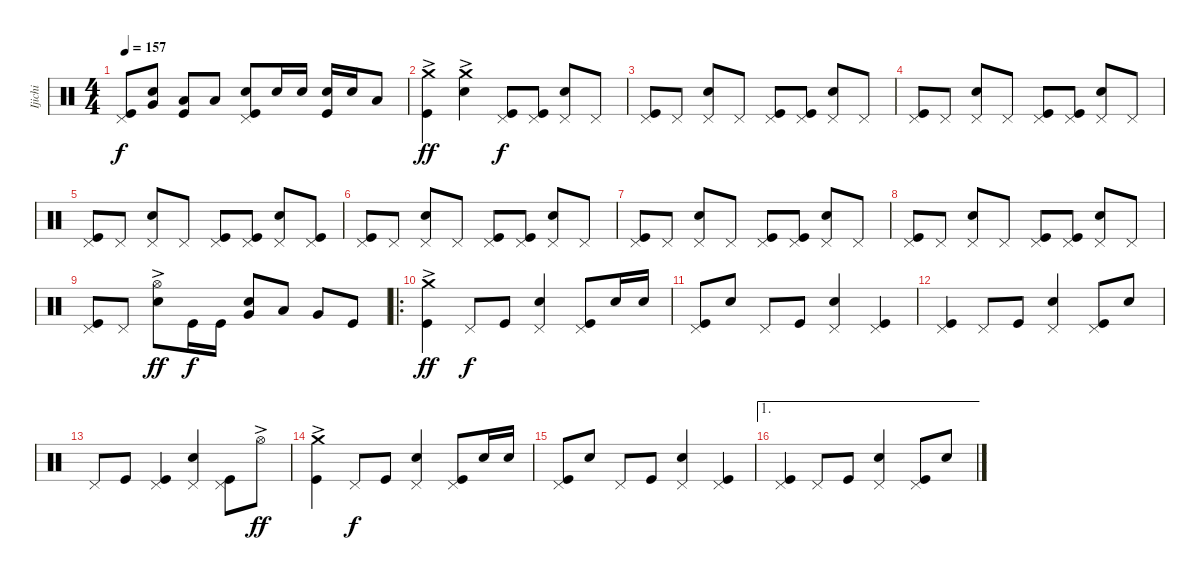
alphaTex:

\track ("Ijichi" "Ijichi") {instrument percussion}
\staff {score}
\articulation defaults
\ts (4 4)
\tempo 157
\clef neutral
\ks c
("Pedal Hi-Hat (hit)" "Kick (hit)").8{dy f} ("Snare (hit) 2" "Very Low Tom (hit)").8 ("Low Tom (hit)" "Kick (hit)").8 "Low Tom (hit)".8 ("Pedal Hi-Hat (hit)" "Snare (hit) 2" "Kick (hit)").8 "Snare (hit) 2".16 "Snare (hit) 2".16 ("Snare (hit) 2" "Kick (hit)").16 "Snare (hit) 2".16 "Low Tom (hit)".8 |
("Crash medium (hit)"{ac} "Kick (hit)").4{dy ff} ("Crash medium (hit)"{ac} "Snare (hit) 2").4 ("Pedal Hi-Hat (hit)" "Kick (hit)").8{dy f} ("Pedal Hi-Hat (hit)" "Kick (hit)").8 ("Pedal Hi-Hat (hit)" "Snare (hit) 2").8 "Pedal Hi-Hat (hit)".8 |
("Pedal Hi-Hat (hit)" "Kick (hit)").8 "Pedal Hi-Hat (hit)".8 ("Pedal Hi-Hat (hit)" "Snare (hit) 2").8 "Pedal Hi-Hat (hit)".8 ("Pedal Hi-Hat (hit)" "Kick (hit)").8 ("Pedal Hi-Hat (hit)" "Kick (hit)").8 ("Pedal Hi-Hat (hit)" "Snare (hit) 2").8 "Pedal Hi-Hat (hit)".8 |
("Pedal Hi-Hat (hit)" "Kick (hit)").8 "Pedal Hi-Hat (hit)".8 ("Pedal Hi-Hat (hit)" "Snare (hit) 2").8 "Pedal Hi-Hat (hit)".8 ("Pedal Hi-Hat (hit)" "Kick (hit)").8 ("Pedal Hi-Hat (hit)" "Kick (hit)").8 ("Pedal Hi-Hat (hit)" "Snare (hit) 2").8 "Pedal Hi-Hat (hit)".8 |
("Pedal Hi-Hat (hit)" "Kick (hit)").8 "Pedal Hi-Hat (hit)".8 ("Pedal Hi-Hat (hit)" "Snare (hit) 2").8 "Pedal Hi-Hat (hit)".8 ("Pedal Hi-Hat (hit)" "Kick (hit)").8 ("Pedal Hi-Hat (hit)" "Kick (hit)").8 ("Pedal Hi-Hat (hit)" "Snare (hit) 2").8 ("Pedal Hi-Hat (hit)" "Kick (hit)").8 |
("Pedal Hi-Hat (hit)" "Kick (hit)").8 "Pedal Hi-Hat (hit)".8 ("Pedal Hi-Hat (hit)" "Snare (hit) 2").8 "Pedal Hi-Hat (hit)".8 ("Pedal Hi-Hat (hit)" "Kick (hit)").8 ("Pedal Hi-Hat (hit)" "Kick (hit)").8 ("Pedal Hi-Hat (hit)" "Snare (hit) 2").8 "Pedal Hi-Hat (hit)".8 |
("Pedal Hi-Hat (hit)" "Kick (hit)").8 "Pedal Hi-Hat (hit)".8 ("Pedal Hi-Hat (hit)" "Snare (hit) 2").8 "Pedal Hi-Hat (hit)".8 ("Pedal Hi-Hat (hit)" "Kick (hit)").8 ("Pedal Hi-Hat (hit)" "Kick (hit)").8 ("Pedal Hi-Hat (hit)" "Snare (hit) 2").8 "Pedal Hi-Hat (hit)".8 |
("Pedal Hi-Hat (hit)" "Kick (hit)").8 "Pedal Hi-Hat (hit)".8 ("Pedal Hi-Hat (hit)" "Snare (hit) 2").8 "Pedal Hi-Hat (hit)".8 ("Pedal Hi-Hat (hit)" "Kick (hit)").8 ("Pedal Hi-Hat (hit)" "Kick (hit)").8 ("Pedal Hi-Hat (hit)" "Snare (hit) 2").8 "Pedal Hi-Hat (hit)".8 |
("Pedal Hi-Hat (hit)" "Kick (hit)").8 "Pedal Hi-Hat (hit)".8 ("Hi-Hat (open)"{ac} "Snare (hit) 2").8{dy ff} "Kick (hit)".16{dy f} "Kick (hit)".16 ("Snare (hit) 2" "Very Low Tom (hit)").8 "Low Tom (hit)".8 "Very Low Tom (hit)".8 "Kick (hit)".8 |
\ro
("Crash medium (hit)"{ac} "Kick (hit)").4{dy ff} "Pedal Hi-Hat (hit)".8{dy f} "Kick (hit)".8 ("Pedal Hi-Hat (hit)" "Snare (hit) 2").4 ("Pedal Hi-Hat (hit)" "Kick (hit)").8 "Snare (hit) 2".16 "Snare (hit) 2".16 |
("Pedal Hi-Hat (hit)" "Kick (hit)").8 "Snare (hit) 2".8 "Pedal Hi-Hat (hit)".8 "Kick (hit)".8 ("Pedal Hi-Hat (hit)" "Snare (hit) 2").4 ("Pedal Hi-Hat (hit)" "Kick (hit)").4 |
("Pedal Hi-Hat (hit)" "Kick (hit)").4 "Pedal Hi-Hat (hit)".8 "Kick (hit)".8 ("Pedal Hi-Hat (hit)" "Snare (hit) 2").4 ("Pedal Hi-Hat (hit)" "Kick (hit)").8 "Snare (hit) 2".8 |
"Pedal Hi-Hat (hit)".8 "Kick (hit)".8 ("Pedal Hi-Hat (hit)" "Kick (hit)").4 ("Pedal Hi-Hat (hit)" "Snare (hit) 2").4 ("Pedal Hi-Hat (hit)" "Kick (hit)").8 "Hi-Hat (open)"{ac}.8{dy ff} |
("Crash medium (hit)"{ac} "Kick (hit)").4 "Pedal Hi-Hat (hit)".8{dy f} "Kick (hit)".8 ("Pedal Hi-Hat (hit)" "Snare (hit) 2").4 ("Pedal Hi-Hat (hit)" "Kick (hit)").8 "Snare (hit) 2".16 "Snare (hit) 2".16 |
("Pedal Hi-Hat (hit)" "Kick (hit)").8 "Snare (hit) 2".8 "Pedal Hi-Hat (hit)".8 "Kick (hit)".8 ("Pedal Hi-Hat (hit)" "Snare (hit) 2").4 ("Pedal Hi-Hat (hit)" "Kick (hit)").4 |
\ae 1
("Pedal Hi-Hat (hit)" "Kick (hit)").4 "Pedal Hi-Hat (hit)".8 "Kick (hit)".8 ("Pedal Hi-Hat (hit)" "Snare (hit) 2").4 ("Pedal Hi-Hat (hit)" "Kick (hit)").8 "Snare (hit) 2".8
